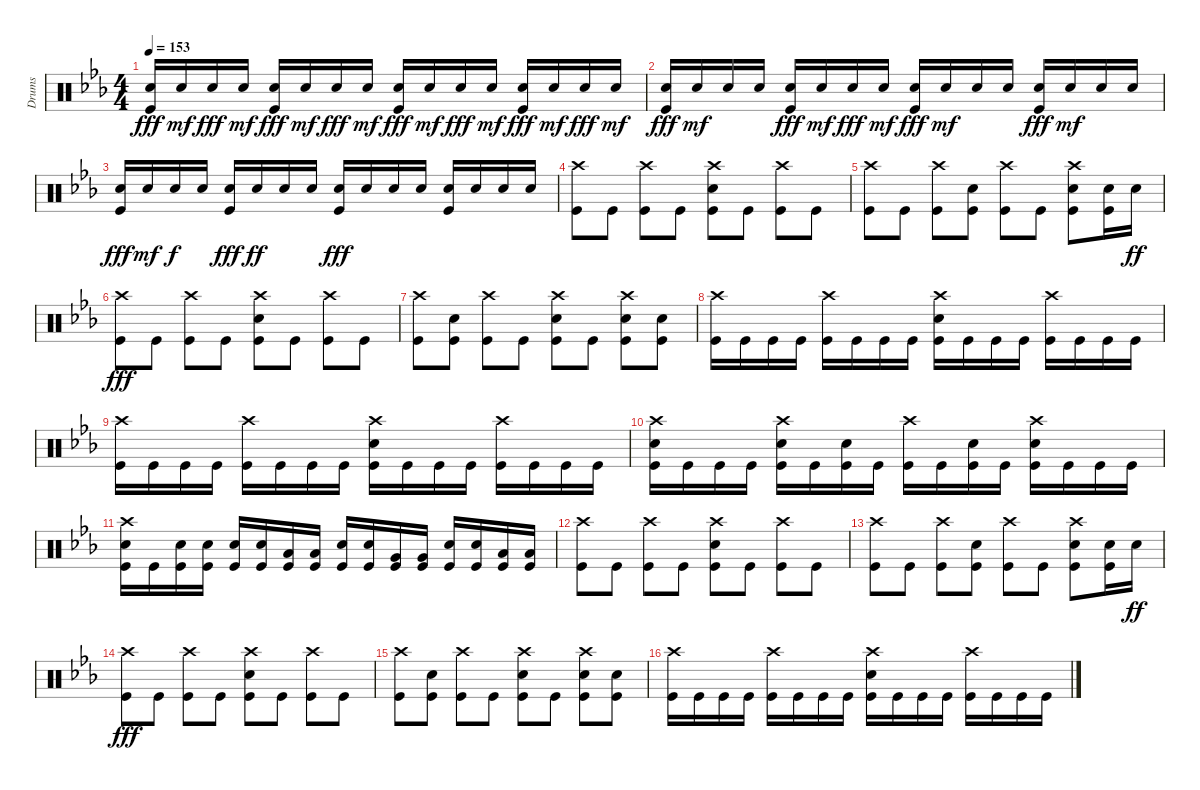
\track ("Drums" "Drums") {instrument percussion}
\staff {score}
\articulation defaults
\ts (4 4)
\tempo 153
\clef neutral
\ks cminor
("Snare (hit) 2" "Kick (hit)").16{dy fff} "Snare (hit) 2".16{dy mf} "Snare (hit) 2".16{dy fff} "Snare (hit) 2".16{dy mf} ("Snare (hit) 2" "Kick (hit)").16{dy fff} "Snare (hit) 2".16{dy mf} "Snare (hit) 2".16{dy fff} "Snare (hit) 2".16{dy mf} ("Snare (hit) 2" "Kick (hit)").16{dy fff} "Snare (hit) 2".16{dy mf} "Snare (hit) 2".16{dy fff} "Snare (hit) 2".16{dy mf} ("Snare (hit) 2" "Kick (hit)").16{dy fff} "Snare (hit) 2".16{dy mf} "Snare (hit) 2".16{dy fff} "Snare (hit) 2".16{dy mf} |
("Snare (hit) 2" "Kick (hit)").16{dy fff} "Snare (hit) 2".16{dy mf} "Snare (hit) 2".16 "Snare (hit) 2".16 ("Snare (hit) 2" "Kick (hit)").16{dy fff} "Snare (hit) 2".16{dy mf} "Snare (hit) 2".16{dy fff} "Snare (hit) 2".16{dy mf} ("Snare (hit) 2" "Kick (hit)").16{dy fff} "Snare (hit) 2".16{dy mf} "Snare (hit) 2".16 "Snare (hit) 2".16 ("Snare (hit) 2" "Kick (hit)").16{dy fff} "Snare (hit) 2".16{dy mf} "Snare (hit) 2".16 "Snare (hit) 2".16 |
("Snare (hit) 2" "Kick (hit)").16{dy fff} "Snare (hit) 2".16{dy mf} "Snare (hit) 2".16{dy f} "Snare (hit) 2".16 ("Snare (hit) 2" "Kick (hit)").16{dy fff} "Snare (hit) 2".16{dy ff} "Snare (hit) 2".16 "Snare (hit) 2".16 ("Snare (hit) 2" "Kick (hit)").16{dy fff} "Snare (hit) 2".16 "Snare (hit) 2".16 "Snare (hit) 2".16 ("Snare (hit) 2" "Kick (hit)").16 "Snare (hit) 2".16 "Snare (hit) 2".16 "Snare (hit) 2".16 |
("Crash high (hit)" "Kick (hit)").8{volume 13} "Kick (hit)".8 ("Crash high (hit)" "Kick (hit)").8 "Kick (hit)".8 ("Crash high (hit)" "Snare (hit) 2" "Kick (hit)").8 "Kick (hit)".8 ("Crash high (hit)" "Kick (hit)").8 "Kick (hit)".8 |
("Crash high (hit)" "Kick (hit)").8 "Kick (hit)".8 ("Crash high (hit)" "Kick (hit)").8 ("Snare (hit) 2" "Kick (hit)").8 ("Crash high (hit)" "Kick (hit)").8 "Kick (hit)".8 ("Crash high (hit)" "Snare (hit) 2" "Kick (hit)").8 ("Snare (hit) 2" "Kick (hit)").16 "Snare (hit) 2".16{dy ff} |
("Crash high (hit)" "Kick (hit)").8{dy fff} "Kick (hit)".8 ("Crash high (hit)" "Kick (hit)").8 "Kick (hit)".8 ("Crash high (hit)" "Snare (hit) 2" "Kick (hit)").8 "Kick (hit)".8 ("Crash high (hit)" "Kick (hit)").8 "Kick (hit)".8 |
("Crash high (hit)" "Kick (hit)").8 ("Snare (hit) 2" "Kick (hit)").8 ("Crash high (hit)" "Kick (hit)").8 "Kick (hit)".8 ("Crash high (hit)" "Snare (hit) 2" "Kick (hit)").8 "Kick (hit)".8 ("Crash high (hit)" "Snare (hit) 2" "Kick (hit)").8 ("Snare (hit) 2" "Kick (hit)").8 |
("Crash high (hit)" "Kick (hit)").16 "Kick (hit)".16 "Kick (hit)".16 "Kick (hit)".16 ("Crash high (hit)" "Kick (hit)").16 "Kick (hit)".16 "Kick (hit)".16 "Kick (hit)".16 ("Crash high (hit)" "Snare (hit) 2" "Kick (hit)").16 "Kick (hit)".16 "Kick (hit)".16 "Kick (hit)".16 ("Crash high (hit)" "Kick (hit)").16 "Kick (hit)".16 "Kick (hit)".16 "Kick (hit)".16 |
("Crash high (hit)" "Kick (hit)").16 "Kick (hit)".16 "Kick (hit)".16 "Kick (hit)".16 ("Crash high (hit)" "Kick (hit)").16 "Kick (hit)".16 "Kick (hit)".16 "Kick (hit)".16 ("Crash high (hit)" "Snare (hit) 2" "Kick (hit)").16 "Kick (hit)".16 "Kick (hit)".16 "Kick (hit)".16 ("Crash high (hit)" "Kick (hit)").16 "Kick (hit)".16 "Kick (hit)".16 "Kick (hit)".16 |
("Crash high (hit)" "Snare (hit) 2" "Kick (hit)").16 "Kick (hit)".16 "Kick (hit)".16 "Kick (hit)".16 ("Crash high (hit)" "Snare (hit) 2" "Kick (hit)").16 "Kick (hit)".16 ("Snare (hit) 2" "Kick (hit)").16 "Kick (hit)".16 ("Crash high (hit)" "Kick (hit)").16 "Kick (hit)".16 ("Snare (hit) 2" "Kick (hit)").16 "Kick (hit)".16 ("Crash high (hit)" "Snare (hit) 2" "Kick (hit)").16 "Kick (hit)".16 "Kick (hit)".16 "Kick (hit)".16 |
("Crash high (hit)" "Snare (hit) 2" "Kick (hit)").16 "Kick (hit)".16 ("Snare (hit) 2" "Kick (hit)").16 ("Snare (hit) 2" "Kick (hit)").16 ("Snare (hit) 2" "Kick (hit)").16 ("Snare (hit) 2" "Kick (hit)").16 ("Low Tom (hit)" "Kick (hit)").16 ("Low Tom (hit)" "Kick (hit)").16 ("Snare (hit) 2" "Kick (hit)").16 ("Snare (hit) 2" "Kick (hit)").16 ("Very Low Tom (hit)" "Kick (hit)").16 ("Very Low Tom (hit)" "Kick (hit)").16 ("Snare (hit) 2" "Kick (hit)").16 ("Snare (hit) 2" "Kick (hit)").16 ("Low Floor Tom (hit)" "Kick (hit)").16 ("Low Floor Tom (hit)" "Kick (hit)").16 |
("Crash high (hit)" "Kick (hit)").8 "Kick (hit)".8 ("Crash high (hit)" "Kick (hit)").8 "Kick (hit)".8 ("Crash high (hit)" "Snare (hit) 2" "Kick (hit)").8 "Kick (hit)".8 ("Crash high (hit)" "Kick (hit)").8 "Kick (hit)".8 |
("Crash high (hit)" "Kick (hit)").8 "Kick (hit)".8 ("Crash high (hit)" "Kick (hit)").8 ("Snare (hit) 2" "Kick (hit)").8 ("Crash high (hit)" "Kick (hit)").8 "Kick (hit)".8 ("Crash high (hit)" "Snare (hit) 2" "Kick (hit)").8 ("Snare (hit) 2" "Kick (hit)").16 "Snare (hit) 2".16{dy ff} |
("Crash high (hit)" "Kick (hit)").8{dy fff} "Kick (hit)".8 ("Crash high (hit)" "Kick (hit)").8 "Kick (hit)".8 ("Crash high (hit)" "Snare (hit) 2" "Kick (hit)").8 "Kick (hit)".8 ("Crash high (hit)" "Kick (hit)").8 "Kick (hit)".8 |
("Crash high (hit)" "Kick (hit)").8 ("Snare (hit) 2" "Kick (hit)").8 ("Crash high (hit)" "Kick (hit)").8 "Kick (hit)".8 ("Crash high (hit)" "Snare (hit) 2" "Kick (hit)").8 "Kick (hit)".8 ("Crash high (hit)" "Snare (hit) 2" "Kick (hit)").8 ("Snare (hit) 2" "Kick (hit)").8 |
("Crash high (hit)" "Kick (hit)").16 "Kick (hit)".16 "Kick (hit)".16 "Kick (hit)".16 ("Crash high (hit)" "Kick (hit)").16 "Kick (hit)".16 "Kick (hit)".16 "Kick (hit)".16 ("Crash high (hit)" "Snare (hit) 2" "Kick (hit)").16 "Kick (hit)".16 "Kick (hit)".16 "Kick (hit)".16 ("Crash high (hit)" "Kick (hit)").16 "Kick (hit)".16 "Kick (hit)".16 "Kick (hit)".16
